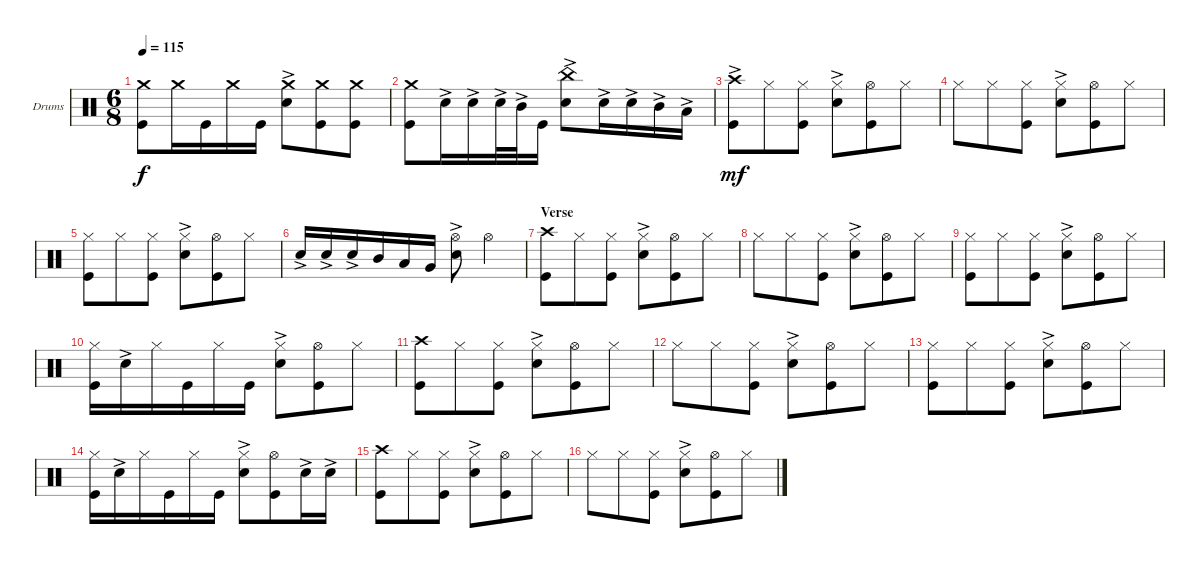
\bracketExtendMode groupsimilarinstruments
\firstSystemTrackNameOrientation horizontal
\otherSystemsTrackNameOrientation horizontal
\track ("Drumkit" "Drums") {instrument percussion}
\staff {score}
\articulation defaults
\ts (6 8)
\tempo 115
\clef neutral
\ks c
("Kick (hit)" "Crash medium (hit)").8{dy f} "Crash medium (hit)".16 "Kick (hit)".16 "Crash medium (hit)".16 "Kick (hit)".16 ("Snare (hit) 2"{ac} "Crash medium (hit)").8 ("Kick (hit)" "Crash medium (hit)").8 ("Kick (hit)" "Crash medium (hit)").8 |
("Kick (hit)" "Crash medium (hit)").8 "Snare (hit) 2"{ac}.16 "Snare (hit) 2"{ac}.16 "Snare (hit) 2"{ac}.32 "Mid Tom (hit)"{ac}.32 "Kick (hit)".16 ("Snare (hit) 2"{ac} "China (hit)").8 "Snare (hit) 2"{ac}.16 "Snare (hit) 2"{ac}.16 "Mid Tom (hit)"{ac}.16 "Low Tom (hit)"{ac}.16 |
("Crash high (hit)"{ac} "Kick (hit)"{ac}).8{dy mf} "Hi-Hat (closed)".8 ("Kick (hit)" "Hi-Hat (closed)").8 ("Snare (hit) 2"{ac} "Hi-Hat (closed)").8 ("Kick (hit)" "Hi-Hat (open)").8 "Hi-Hat (closed)".8 |
"Hi-Hat (closed)".8 "Hi-Hat (closed)".8 ("Hi-Hat (closed)" "Kick (hit)").8 ("Hi-Hat (closed)" "Snare (hit) 2"{ac}).8 ("Kick (hit)" "Hi-Hat (open)").8 "Hi-Hat (closed)".8 |
("Kick (hit)" "Hi-Hat (closed)").8 "Hi-Hat (closed)".8 ("Kick (hit)" "Hi-Hat (closed)").8 ("Snare (hit) 2"{ac} "Hi-Hat (closed)").8 ("Kick (hit)" "Hi-Hat (open)").8 "Hi-Hat (closed)".8 |
"Snare (hit) 2"{ac}.16 "Snare (hit) 2"{ac}.16 "Snare (hit) 2"{ac}.16 "Mid Tom (hit)".16 "Low Tom (hit)".16 "Very Low Tom (hit)".16 ("Snare (hit) 2"{ac} "Hi-Hat (open)").8 "Hi-Hat (open)".4 |
\section ("" "Verse")
("Crash high (hit)" "Kick (hit)").8 "Hi-Hat (closed)".8 ("Kick (hit)" "Hi-Hat (closed)").8 ("Snare (hit) 2"{ac} "Hi-Hat (closed)").8 ("Kick (hit)" "Hi-Hat (open)").8 "Hi-Hat (closed)".8 |
"Hi-Hat (closed)".8 "Hi-Hat (closed)".8 ("Hi-Hat (closed)" "Kick (hit)").8 ("Hi-Hat (closed)" "Snare (hit) 2"{ac}).8 ("Kick (hit)" "Hi-Hat (open)").8 "Hi-Hat (closed)".8 |
("Kick (hit)" "Hi-Hat (closed)").8 "Hi-Hat (closed)".8 ("Kick (hit)" "Hi-Hat (closed)").8 ("Snare (hit) 2"{ac} "Hi-Hat (closed)").8 ("Kick (hit)" "Hi-Hat (open)").8 "Hi-Hat (closed)".8 |
("Kick (hit)" "Hi-Hat (closed)").16 "Snare (hit) 2"{ac}.16 "Hi-Hat (closed)".16 "Kick (hit)".16 "Hi-Hat (closed)".16 "Kick (hit)".16 ("Snare (hit) 2"{ac} "Hi-Hat (closed)").8 ("Kick (hit)" "Hi-Hat (open)").8 "Hi-Hat (closed)".8 |
("Crash high (hit)" "Kick (hit)").8 "Hi-Hat (closed)".8 ("Kick (hit)" "Hi-Hat (closed)").8 ("Snare (hit) 2"{ac} "Hi-Hat (closed)").8 ("Kick (hit)" "Hi-Hat (open)").8 "Hi-Hat (closed)".8 |
"Hi-Hat (closed)".8 "Hi-Hat (closed)".8 ("Hi-Hat (closed)" "Kick (hit)").8 ("Hi-Hat (closed)" "Snare (hit) 2"{ac}).8 ("Kick (hit)" "Hi-Hat (open)").8 "Hi-Hat (closed)".8 |
("Kick (hit)" "Hi-Hat (closed)").8 "Hi-Hat (closed)".8 ("Kick (hit)" "Hi-Hat (closed)").8 ("Snare (hit) 2"{ac} "Hi-Hat (closed)").8 ("Kick (hit)" "Hi-Hat (open)").8 "Hi-Hat (closed)".8 |
("Kick (hit)" "Hi-Hat (closed)").16 "Snare (hit) 2"{ac}.16 "Hi-Hat (closed)".16 "Kick (hit)".16 "Hi-Hat (closed)".16 "Kick (hit)".16 ("Snare (hit) 2"{ac} "Hi-Hat (closed)").8 ("Kick (hit)" "Hi-Hat (open)").8 "Snare (hit) 2"{ac}.16 "Snare (hit) 2"{ac}.16 |
("Crash high (hit)" "Kick (hit)").8 "Hi-Hat (closed)".8 ("Kick (hit)" "Hi-Hat (closed)").8 ("Snare (hit) 2"{ac} "Hi-Hat (closed)").8 ("Kick (hit)" "Hi-Hat (open)").8 "Hi-Hat (closed)".8 |
"Hi-Hat (closed)".8 "Hi-Hat (closed)".8 ("Hi-Hat (closed)" "Kick (hit)").8 ("Hi-Hat (closed)" "Snare (hit) 2"{ac}).8 ("Kick (hit)" "Hi-Hat (open)").8 "Hi-Hat (closed)".8
